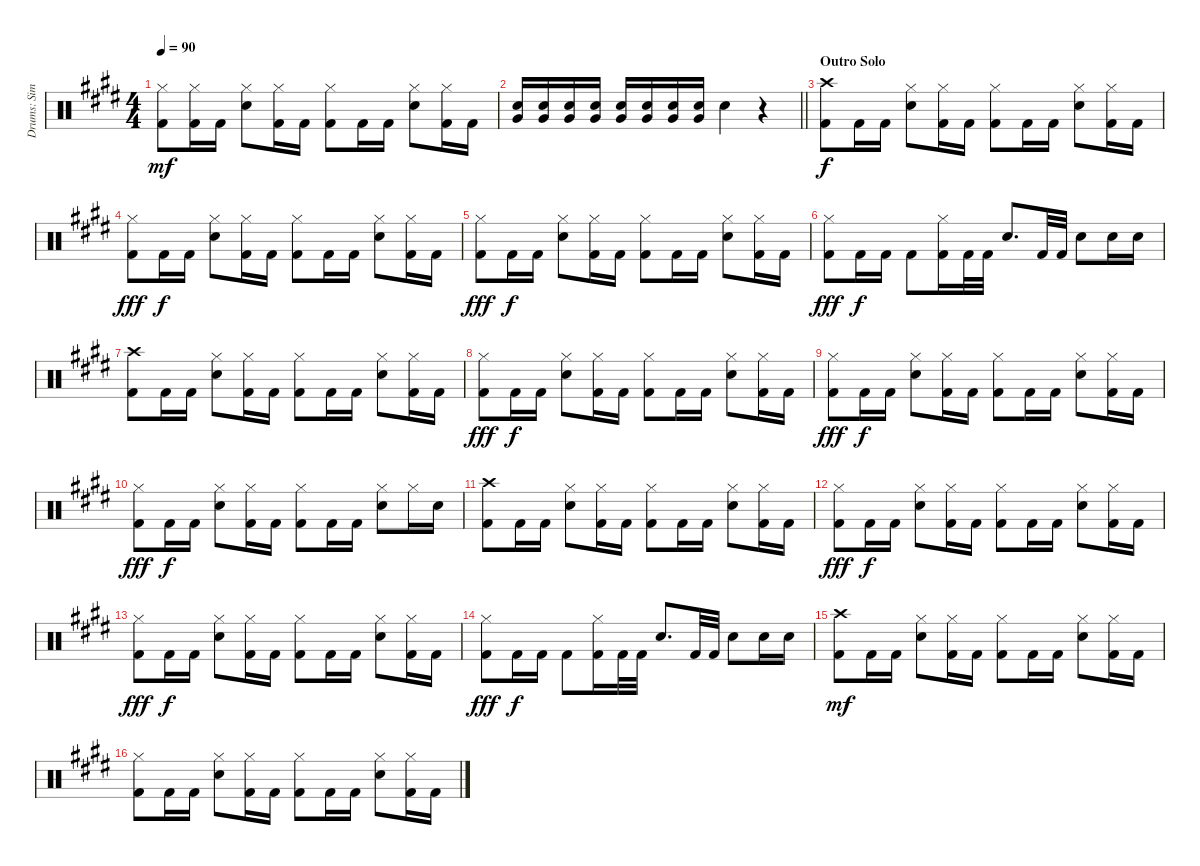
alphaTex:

\track ("Drums: Simon" "Drums: Sim") {instrument percussion}
\staff {score}
\articulation defaults
\ts (4 4)
\tempo 90
\clef neutral
\ks e
("Hi-Hat (closed)" "Kick (hit) 2").8{dy mf} ("Hi-Hat (closed)" "Kick (hit) 2").16 "Kick (hit) 2".16 ("Hi-Hat (closed)" "Electric Snare (hit)").8 ("Hi-Hat (closed)" "Kick (hit) 2").16 "Kick (hit) 2".16 ("Hi-Hat (closed)" "Kick (hit) 2").8 "Kick (hit) 2".16 "Kick (hit) 2".16 ("Hi-Hat (closed)" "Electric Snare (hit)").8 ("Hi-Hat (closed)" "Kick (hit) 2").16 "Kick (hit) 2".16 |
\barLineRight lightlight
("Electric Snare (hit)" "Very Low Tom (hit)").16 ("Electric Snare (hit)" "Very Low Tom (hit)").16 ("Electric Snare (hit)" "Very Low Tom (hit)").16 ("Electric Snare (hit)" "Very Low Tom (hit)").16 ("Electric Snare (hit)" "Very Low Tom (hit)").16 ("Electric Snare (hit)" "Very Low Tom (hit)").16 ("Electric Snare (hit)" "Very Low Tom (hit)").16 ("Electric Snare (hit)" "Very Low Tom (hit)").16 "Electric Snare (hit)".4 r.4 |
\section ("" "Outro Solo")
("Crash high (hit)" "Kick (hit) 2").8{dy f} "Kick (hit) 2".16 "Kick (hit) 2".16 ("Hi-Hat (closed)" "Electric Snare (hit)").8 ("Hi-Hat (closed)" "Kick (hit) 2").16 "Kick (hit) 2".16 ("Hi-Hat (closed)" "Kick (hit) 2").8 "Kick (hit) 2".16 "Kick (hit) 2".16 ("Hi-Hat (closed)" "Electric Snare (hit)").8 ("Hi-Hat (closed)" "Kick (hit) 2").16 "Kick (hit) 2".16 |
("Hi-Hat (closed)" "Kick (hit) 2").8{dy fff} "Kick (hit) 2".16{dy f} "Kick (hit) 2".16 ("Hi-Hat (closed)" "Electric Snare (hit)").8 ("Hi-Hat (closed)" "Kick (hit) 2").16 "Kick (hit) 2".16 ("Hi-Hat (closed)" "Kick (hit) 2").8 "Kick (hit) 2".16 "Kick (hit) 2".16 ("Hi-Hat (closed)" "Electric Snare (hit)").8 ("Hi-Hat (closed)" "Kick (hit) 2").16 "Kick (hit) 2".16 |
("Hi-Hat (closed)" "Kick (hit) 2").8{dy fff} "Kick (hit) 2".16{dy f} "Kick (hit) 2".16 ("Hi-Hat (closed)" "Electric Snare (hit)").8 ("Hi-Hat (closed)" "Kick (hit) 2").16 "Kick (hit) 2".16 ("Hi-Hat (closed)" "Kick (hit) 2").8 "Kick (hit) 2".16 "Kick (hit) 2".16 ("Hi-Hat (closed)" "Electric Snare (hit)").8 ("Hi-Hat (closed)" "Kick (hit) 2").16 "Kick (hit) 2".16 |
("Hi-Hat (closed)" "Kick (hit) 2").8{dy fff} "Kick (hit) 2".16{dy f} "Kick (hit) 2".16 "Kick (hit) 2".8 ("Hi-Hat (closed)" "Kick (hit) 2").16 "Kick (hit) 2".32 "Kick (hit) 2".32 "Electric Snare (hit)".8{d} "Kick (hit) 2".32 "Kick (hit) 2".32 "Electric Snare (hit)".8 "Electric Snare (hit)".16 "Electric Snare (hit)".16 |
("Crash high (hit)" "Kick (hit) 2").8 "Kick (hit) 2".16 "Kick (hit) 2".16 ("Hi-Hat (closed)" "Electric Snare (hit)").8 ("Hi-Hat (closed)" "Kick (hit) 2").16 "Kick (hit) 2".16 ("Hi-Hat (closed)" "Kick (hit) 2").8 "Kick (hit) 2".16 "Kick (hit) 2".16 ("Hi-Hat (closed)" "Electric Snare (hit)").8 ("Hi-Hat (closed)" "Kick (hit) 2").16 "Kick (hit) 2".16 |
("Hi-Hat (closed)" "Kick (hit) 2").8{dy fff} "Kick (hit) 2".16{dy f} "Kick (hit) 2".16 ("Hi-Hat (closed)" "Electric Snare (hit)").8 ("Hi-Hat (closed)" "Kick (hit) 2").16 "Kick (hit) 2".16 ("Hi-Hat (closed)" "Kick (hit) 2").8 "Kick (hit) 2".16 "Kick (hit) 2".16 ("Hi-Hat (closed)" "Electric Snare (hit)").8 ("Hi-Hat (closed)" "Kick (hit) 2").16 "Kick (hit) 2".16 |
("Hi-Hat (closed)" "Kick (hit) 2").8{dy fff} "Kick (hit) 2".16{dy f} "Kick (hit) 2".16 ("Hi-Hat (closed)" "Electric Snare (hit)").8 ("Hi-Hat (closed)" "Kick (hit) 2").16 "Kick (hit) 2".16 ("Hi-Hat (closed)" "Kick (hit) 2").8 "Kick (hit) 2".16 "Kick (hit) 2".16 ("Hi-Hat (closed)" "Electric Snare (hit)").8 ("Hi-Hat (closed)" "Kick (hit) 2").16 "Kick (hit) 2".16 |
("Hi-Hat (closed)" "Kick (hit) 2").8{dy fff} "Kick (hit) 2".16{dy f} "Kick (hit) 2".16 ("Hi-Hat (closed)" "Electric Snare (hit)").8 ("Hi-Hat (closed)" "Kick (hit) 2").16 "Kick (hit) 2".16 ("Hi-Hat (closed)" "Kick (hit) 2").8 "Kick (hit) 2".16 "Kick (hit) 2".16 ("Hi-Hat (closed)" "Electric Snare (hit)").8 "Hi-Hat (closed)".16 "Electric Snare (hit)".16 |
("Crash high (hit)" "Kick (hit) 2").8 "Kick (hit) 2".16 "Kick (hit) 2".16 ("Hi-Hat (closed)" "Electric Snare (hit)").8 ("Hi-Hat (closed)" "Kick (hit) 2").16 "Kick (hit) 2".16 ("Hi-Hat (closed)" "Kick (hit) 2").8 "Kick (hit) 2".16 "Kick (hit) 2".16 ("Hi-Hat (closed)" "Electric Snare (hit)").8 ("Hi-Hat (closed)" "Kick (hit) 2").16 "Kick (hit) 2".16 |
("Hi-Hat (closed)" "Kick (hit) 2").8{dy fff} "Kick (hit) 2".16{dy f} "Kick (hit) 2".16 ("Hi-Hat (closed)" "Electric Snare (hit)").8 ("Hi-Hat (closed)" "Kick (hit) 2").16 "Kick (hit) 2".16 ("Hi-Hat (closed)" "Kick (hit) 2").8 "Kick (hit) 2".16 "Kick (hit) 2".16 ("Hi-Hat (closed)" "Electric Snare (hit)").8 ("Hi-Hat (closed)" "Kick (hit) 2").16 "Kick (hit) 2".16 |
("Hi-Hat (closed)" "Kick (hit) 2").8{dy fff} "Kick (hit) 2".16{dy f} "Kick (hit) 2".16 ("Hi-Hat (closed)" "Electric Snare (hit)").8 ("Hi-Hat (closed)" "Kick (hit) 2").16 "Kick (hit) 2".16 ("Hi-Hat (closed)" "Kick (hit) 2").8 "Kick (hit) 2".16 "Kick (hit) 2".16 ("Hi-Hat (closed)" "Electric Snare (hit)").8 ("Hi-Hat (closed)" "Kick (hit) 2").16 "Kick (hit) 2".16 |
("Hi-Hat (closed)" "Kick (hit) 2").8{dy fff} "Kick (hit) 2".16{dy f} "Kick (hit) 2".16 "Kick (hit) 2".8 ("Hi-Hat (closed)" "Kick (hit) 2").16 "Kick (hit) 2".32 "Kick (hit) 2".32 "Electric Snare (hit)".8{d} "Kick (hit) 2".32 "Kick (hit) 2".32 "Electric Snare (hit)".8 "Electric Snare (hit)".16 "Electric Snare (hit)".16 |
("Crash high (hit)" "Kick (hit) 2").8{dy mf} "Kick (hit) 2".16 "Kick (hit) 2".16 ("Hi-Hat (closed)" "Electric Snare (hit)").8 ("Hi-Hat (closed)" "Kick (hit) 2").16 "Kick (hit) 2".16 ("Hi-Hat (closed)" "Kick (hit) 2").8 "Kick (hit) 2".16 "Kick (hit) 2".16 ("Hi-Hat (closed)" "Electric Snare (hit)").8 ("Hi-Hat (closed)" "Kick (hit) 2").16 "Kick (hit) 2".16 |
("Hi-Hat (closed)" "Kick (hit) 2").8 "Kick (hit) 2".16 "Kick (hit) 2".16 ("Hi-Hat (closed)" "Electric Snare (hit)").8 ("Hi-Hat (closed)" "Kick (hit) 2").16 "Kick (hit) 2".16 ("Hi-Hat (closed)" "Kick (hit) 2").8 "Kick (hit) 2".16 "Kick (hit) 2".16 ("Hi-Hat (closed)" "Electric Snare (hit)").8 ("Hi-Hat (closed)" "Kick (hit) 2").16 "Kick (hit) 2".16
